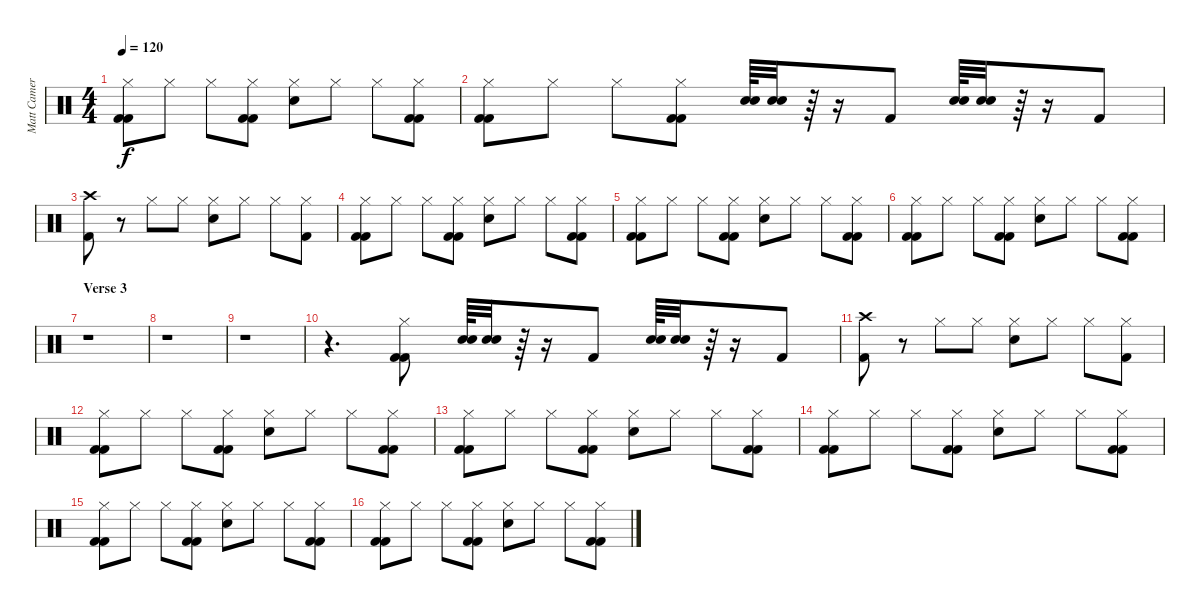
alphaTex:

\track ("Matt Cameron" "Matt Camer") {instrument percussion}
\staff {score}
\articulation defaults
\ts (4 4)
\tempo 120
\clef neutral
\ks c
("Hi-Hat (closed)" "Kick (hit) 2" "Kick (hit) 2").8{dy f} "Hi-Hat (closed)".8 "Hi-Hat (closed)".8 ("Hi-Hat (closed)" "Kick (hit) 2" "Kick (hit) 2").8 ("Hi-Hat (closed)" "Electric Snare (hit)").8 "Hi-Hat (closed)".8 "Hi-Hat (closed)".8 ("Hi-Hat (closed)" "Kick (hit) 2" "Kick (hit) 2").8 |
("Hi-Hat (closed)" "Kick (hit) 2" "Kick (hit) 2").8 "Hi-Hat (closed)".8 "Hi-Hat (closed)".8 ("Hi-Hat (closed)" "Kick (hit) 2" "Kick (hit) 2").8 ("Electric Snare (hit)" "Electric Snare (hit)").64 ("Electric Snare (hit)" "Electric Snare (hit)").32 r.64 r.16 "Kick (hit) 2".8 ("Electric Snare (hit)" "Electric Snare (hit)").64 ("Electric Snare (hit)" "Electric Snare (hit)").32 r.64 r.16 "Kick (hit) 2".8 |
("Crash high (hit)" "Kick (hit) 2").8 r.8 "Hi-Hat (closed)".8 "Hi-Hat (closed)".8 ("Hi-Hat (closed)" "Electric Snare (hit)").8 "Hi-Hat (closed)".8 "Hi-Hat (closed)".8 ("Hi-Hat (closed)" "Kick (hit) 2").8 |
("Hi-Hat (closed)" "Kick (hit) 2" "Kick (hit) 2").8 "Hi-Hat (closed)".8 "Hi-Hat (closed)".8 ("Hi-Hat (closed)" "Kick (hit) 2" "Kick (hit) 2").8 ("Hi-Hat (closed)" "Electric Snare (hit)").8 "Hi-Hat (closed)".8 "Hi-Hat (closed)".8 ("Hi-Hat (closed)" "Kick (hit) 2" "Kick (hit) 2").8 |
("Hi-Hat (closed)" "Kick (hit) 2" "Kick (hit) 2").8 "Hi-Hat (closed)".8 "Hi-Hat (closed)".8 ("Hi-Hat (closed)" "Kick (hit) 2" "Kick (hit) 2").8 ("Hi-Hat (closed)" "Electric Snare (hit)").8 "Hi-Hat (closed)".8 "Hi-Hat (closed)".8 ("Hi-Hat (closed)" "Kick (hit) 2" "Kick (hit) 2").8 |
("Hi-Hat (closed)" "Kick (hit) 2" "Kick (hit) 2").8 "Hi-Hat (closed)".8 "Hi-Hat (closed)".8 ("Hi-Hat (closed)" "Kick (hit) 2" "Kick (hit) 2").8 ("Hi-Hat (closed)" "Electric Snare (hit)").8 "Hi-Hat (closed)".8 "Hi-Hat (closed)".8 ("Hi-Hat (closed)" "Kick (hit) 2" "Kick (hit) 2").8 |
\section ("" "Verse 3")
r.1 |
r.1 |
r.1 |
r.4{d volume 13} ("Hi-Hat (closed)" "Kick (hit) 2" "Kick (hit) 2").8 ("Electric Snare (hit)" "Electric Snare (hit)").64 ("Electric Snare (hit)" "Electric Snare (hit)").32 r.64 r.16 "Kick (hit) 2".8 ("Electric Snare (hit)" "Electric Snare (hit)").64 ("Electric Snare (hit)" "Electric Snare (hit)").32 r.64 r.16 "Kick (hit) 2".8 |
("Crash high (hit)" "Kick (hit) 2").8 r.8 "Hi-Hat (closed)".8 "Hi-Hat (closed)".8 ("Hi-Hat (closed)" "Electric Snare (hit)").8 "Hi-Hat (closed)".8 "Hi-Hat (closed)".8 ("Hi-Hat (closed)" "Kick (hit) 2").8 |
("Hi-Hat (closed)" "Kick (hit) 2" "Kick (hit) 2").8 "Hi-Hat (closed)".8 "Hi-Hat (closed)".8 ("Hi-Hat (closed)" "Kick (hit) 2" "Kick (hit) 2").8 ("Hi-Hat (closed)" "Electric Snare (hit)").8 "Hi-Hat (closed)".8 "Hi-Hat (closed)".8 ("Hi-Hat (closed)" "Kick (hit) 2" "Kick (hit) 2").8 |
("Hi-Hat (closed)" "Kick (hit) 2" "Kick (hit) 2").8 "Hi-Hat (closed)".8 "Hi-Hat (closed)".8 ("Hi-Hat (closed)" "Kick (hit) 2" "Kick (hit) 2").8 ("Hi-Hat (closed)" "Electric Snare (hit)").8 "Hi-Hat (closed)".8 "Hi-Hat (closed)".8 ("Hi-Hat (closed)" "Kick (hit) 2" "Kick (hit) 2").8 |
("Hi-Hat (closed)" "Kick (hit) 2" "Kick (hit) 2").8 "Hi-Hat (closed)".8 "Hi-Hat (closed)".8 ("Hi-Hat (closed)" "Kick (hit) 2" "Kick (hit) 2").8 ("Hi-Hat (closed)" "Electric Snare (hit)").8 "Hi-Hat (closed)".8 "Hi-Hat (closed)".8 ("Hi-Hat (closed)" "Kick (hit) 2" "Kick (hit) 2").8 |
("Hi-Hat (closed)" "Kick (hit) 2" "Kick (hit) 2").8 "Hi-Hat (closed)".8 "Hi-Hat (closed)".8 ("Hi-Hat (closed)" "Kick (hit) 2" "Kick (hit) 2").8 ("Hi-Hat (closed)" "Electric Snare (hit)").8 "Hi-Hat (closed)".8 "Hi-Hat (closed)".8 ("Hi-Hat (closed)" "Kick (hit) 2" "Kick (hit) 2").8 |
("Hi-Hat (closed)" "Kick (hit) 2" "Kick (hit) 2").8 "Hi-Hat (closed)".8 "Hi-Hat (closed)".8 ("Hi-Hat (closed)" "Kick (hit) 2" "Kick (hit) 2").8 ("Hi-Hat (closed)" "Electric Snare (hit)").8 "Hi-Hat (closed)".8 "Hi-Hat (closed)".8 ("Hi-Hat (closed)" "Kick (hit) 2" "Kick (hit) 2").8
